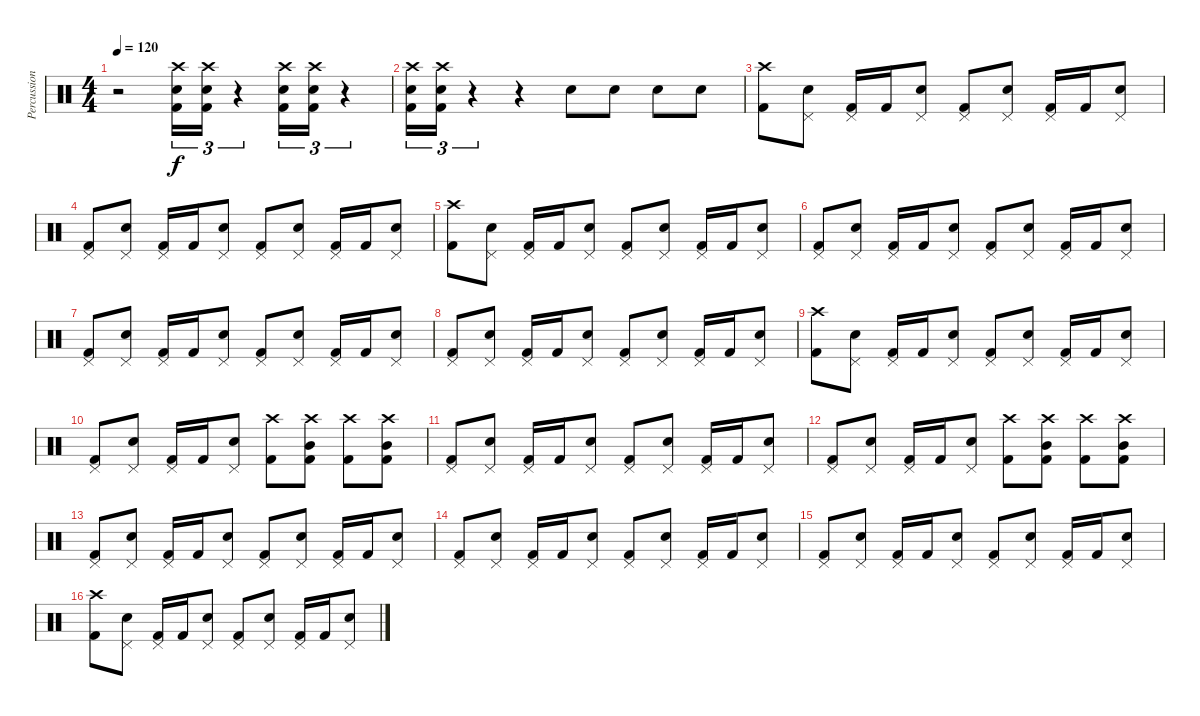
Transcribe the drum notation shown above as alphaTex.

\track ("Percussion" "Percussion") {instrument percussion}
\staff {score}
\articulation defaults
\ts (4 4)
\tempo 120
\clef neutral
\ks c
r.2{dy f} ("Crash high (hit)" "Snare (hit) 2" "Kick (hit) 2").16{tu (3 2)} ("Crash high (hit)" "Snare (hit) 2" "Kick (hit) 2").16{tu (3 2)} r.4{tu (3 2)} ("Crash high (hit)" "Snare (hit) 2" "Kick (hit) 2").16{tu (3 2)} ("Crash high (hit)" "Snare (hit) 2" "Kick (hit) 2").16{tu (3 2)} r.4{tu (3 2)} |
("Crash high (hit)" "Snare (hit) 2" "Kick (hit) 2").16{tu (3 2)} ("Crash high (hit)" "Snare (hit) 2" "Kick (hit) 2").16{tu (3 2)} r.4{tu (3 2)} r.4 "Snare (hit) 2".8 "Snare (hit) 2".8 "Snare (hit) 2".8 "Snare (hit) 2".8 |
("Crash high (hit)" "Kick (hit) 2").8 ("Pedal Hi-Hat (hit)" "Snare (hit) 2").8 ("Pedal Hi-Hat (hit)" "Kick (hit) 2").16 "Kick (hit) 2".16 ("Pedal Hi-Hat (hit)" "Snare (hit) 2").8 ("Pedal Hi-Hat (hit)" "Kick (hit) 2").8 ("Pedal Hi-Hat (hit)" "Snare (hit) 2").8 ("Pedal Hi-Hat (hit)" "Kick (hit) 2").16 "Kick (hit) 2".16 ("Pedal Hi-Hat (hit)" "Snare (hit) 2").8 |
("Pedal Hi-Hat (hit)" "Kick (hit) 2").8 ("Pedal Hi-Hat (hit)" "Snare (hit) 2").8 ("Pedal Hi-Hat (hit)" "Kick (hit) 2").16 "Kick (hit) 2".16 ("Pedal Hi-Hat (hit)" "Snare (hit) 2").8 ("Pedal Hi-Hat (hit)" "Kick (hit) 2").8 ("Pedal Hi-Hat (hit)" "Snare (hit) 2").8 ("Pedal Hi-Hat (hit)" "Kick (hit) 2").16 "Kick (hit) 2".16 ("Pedal Hi-Hat (hit)" "Snare (hit) 2").8 |
("Crash high (hit)" "Kick (hit) 2").8 ("Pedal Hi-Hat (hit)" "Snare (hit) 2").8 ("Pedal Hi-Hat (hit)" "Kick (hit) 2").16 "Kick (hit) 2".16 ("Pedal Hi-Hat (hit)" "Snare (hit) 2").8 ("Pedal Hi-Hat (hit)" "Kick (hit) 2").8 ("Pedal Hi-Hat (hit)" "Snare (hit) 2").8 ("Pedal Hi-Hat (hit)" "Kick (hit) 2").16 "Kick (hit) 2".16 ("Pedal Hi-Hat (hit)" "Snare (hit) 2").8 |
("Pedal Hi-Hat (hit)" "Kick (hit) 2").8 ("Pedal Hi-Hat (hit)" "Snare (hit) 2").8 ("Pedal Hi-Hat (hit)" "Kick (hit) 2").16 "Kick (hit) 2".16 ("Pedal Hi-Hat (hit)" "Snare (hit) 2").8 ("Pedal Hi-Hat (hit)" "Kick (hit) 2").8 ("Pedal Hi-Hat (hit)" "Snare (hit) 2").8 ("Pedal Hi-Hat (hit)" "Kick (hit) 2").16 "Kick (hit) 2".16 ("Pedal Hi-Hat (hit)" "Snare (hit) 2").8 |
("Pedal Hi-Hat (hit)" "Kick (hit) 2").8 ("Pedal Hi-Hat (hit)" "Snare (hit) 2").8 ("Pedal Hi-Hat (hit)" "Kick (hit) 2").16 "Kick (hit) 2".16 ("Pedal Hi-Hat (hit)" "Snare (hit) 2").8 ("Pedal Hi-Hat (hit)" "Kick (hit) 2").8 ("Pedal Hi-Hat (hit)" "Snare (hit) 2").8 ("Pedal Hi-Hat (hit)" "Kick (hit) 2").16 "Kick (hit) 2".16 ("Pedal Hi-Hat (hit)" "Snare (hit) 2").8 |
("Pedal Hi-Hat (hit)" "Kick (hit) 2").8 ("Pedal Hi-Hat (hit)" "Snare (hit) 2").8 ("Pedal Hi-Hat (hit)" "Kick (hit) 2").16 "Kick (hit) 2".16 ("Pedal Hi-Hat (hit)" "Snare (hit) 2").8 ("Pedal Hi-Hat (hit)" "Kick (hit) 2").8 ("Pedal Hi-Hat (hit)" "Snare (hit) 2").8 ("Pedal Hi-Hat (hit)" "Kick (hit) 2").16 "Kick (hit) 2".16 ("Pedal Hi-Hat (hit)" "Snare (hit) 2").8 |
("Crash high (hit)" "Kick (hit) 2").8 ("Pedal Hi-Hat (hit)" "Snare (hit) 2").8 ("Pedal Hi-Hat (hit)" "Kick (hit) 2").16 "Kick (hit) 2".16 ("Pedal Hi-Hat (hit)" "Snare (hit) 2").8 ("Pedal Hi-Hat (hit)" "Kick (hit) 2").8 ("Pedal Hi-Hat (hit)" "Snare (hit) 2").8 ("Pedal Hi-Hat (hit)" "Kick (hit) 2").16 "Kick (hit) 2".16 ("Pedal Hi-Hat (hit)" "Snare (hit) 2").8 |
("Pedal Hi-Hat (hit)" "Kick (hit) 2").8 ("Pedal Hi-Hat (hit)" "Snare (hit) 2").8 ("Pedal Hi-Hat (hit)" "Kick (hit) 2").16 "Kick (hit) 2".16 ("Pedal Hi-Hat (hit)" "Snare (hit) 2").8 ("Crash high (hit)" "Kick (hit) 2").8 ("Crash high (hit)" "Mid Tom (hit)" "Kick (hit) 2").8 ("Crash high (hit)" "Kick (hit) 2").8 ("Crash high (hit)" "Mid Tom (hit)" "Kick (hit) 2").8 |
("Pedal Hi-Hat (hit)" "Kick (hit) 2").8 ("Pedal Hi-Hat (hit)" "Snare (hit) 2").8 ("Pedal Hi-Hat (hit)" "Kick (hit) 2").16 "Kick (hit) 2".16 ("Pedal Hi-Hat (hit)" "Snare (hit) 2").8 ("Pedal Hi-Hat (hit)" "Kick (hit) 2").8 ("Pedal Hi-Hat (hit)" "Snare (hit) 2").8 ("Pedal Hi-Hat (hit)" "Kick (hit) 2").16 "Kick (hit) 2".16 ("Pedal Hi-Hat (hit)" "Snare (hit) 2").8 |
("Pedal Hi-Hat (hit)" "Kick (hit) 2").8 ("Pedal Hi-Hat (hit)" "Snare (hit) 2").8 ("Pedal Hi-Hat (hit)" "Kick (hit) 2").16 "Kick (hit) 2".16 ("Pedal Hi-Hat (hit)" "Snare (hit) 2").8 ("Crash high (hit)" "Kick (hit) 2").8 ("Crash high (hit)" "Mid Tom (hit)" "Kick (hit) 2").8 ("Crash high (hit)" "Kick (hit) 2").8 ("Crash high (hit)" "Mid Tom (hit)" "Kick (hit) 2").8 |
("Pedal Hi-Hat (hit)" "Kick (hit) 2").8 ("Pedal Hi-Hat (hit)" "Snare (hit) 2").8 ("Pedal Hi-Hat (hit)" "Kick (hit) 2").16 "Kick (hit) 2".16 ("Pedal Hi-Hat (hit)" "Snare (hit) 2").8 ("Pedal Hi-Hat (hit)" "Kick (hit) 2").8 ("Pedal Hi-Hat (hit)" "Snare (hit) 2").8 ("Pedal Hi-Hat (hit)" "Kick (hit) 2").16 "Kick (hit) 2".16 ("Pedal Hi-Hat (hit)" "Snare (hit) 2").8 |
("Pedal Hi-Hat (hit)" "Kick (hit) 2").8 ("Pedal Hi-Hat (hit)" "Snare (hit) 2").8 ("Pedal Hi-Hat (hit)" "Kick (hit) 2").16 "Kick (hit) 2".16 ("Pedal Hi-Hat (hit)" "Snare (hit) 2").8 ("Pedal Hi-Hat (hit)" "Kick (hit) 2").8 ("Pedal Hi-Hat (hit)" "Snare (hit) 2").8 ("Pedal Hi-Hat (hit)" "Kick (hit) 2").16 "Kick (hit) 2".16 ("Pedal Hi-Hat (hit)" "Snare (hit) 2").8 |
("Pedal Hi-Hat (hit)" "Kick (hit) 2").8 ("Pedal Hi-Hat (hit)" "Snare (hit) 2").8 ("Pedal Hi-Hat (hit)" "Kick (hit) 2").16 "Kick (hit) 2".16 ("Pedal Hi-Hat (hit)" "Snare (hit) 2").8 ("Pedal Hi-Hat (hit)" "Kick (hit) 2").8 ("Pedal Hi-Hat (hit)" "Snare (hit) 2").8 ("Pedal Hi-Hat (hit)" "Kick (hit) 2").16 "Kick (hit) 2".16 ("Pedal Hi-Hat (hit)" "Snare (hit) 2").8 |
("Crash high (hit)" "Kick (hit) 2").8 ("Pedal Hi-Hat (hit)" "Snare (hit) 2").8 ("Pedal Hi-Hat (hit)" "Kick (hit) 2").16 "Kick (hit) 2".16 ("Pedal Hi-Hat (hit)" "Snare (hit) 2").8 ("Pedal Hi-Hat (hit)" "Kick (hit) 2").8 ("Pedal Hi-Hat (hit)" "Snare (hit) 2").8 ("Pedal Hi-Hat (hit)" "Kick (hit) 2").16 "Kick (hit) 2".16 ("Pedal Hi-Hat (hit)" "Snare (hit) 2").8
